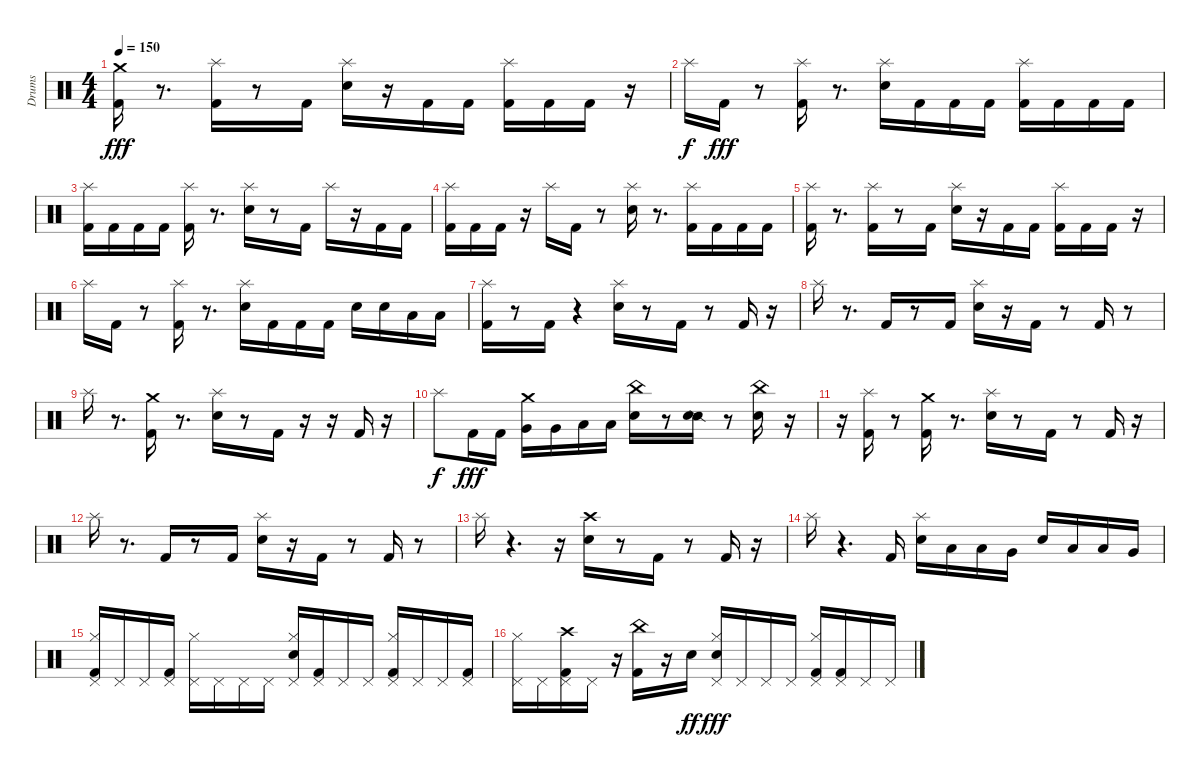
\track ("Drums" "Drums") {instrument percussion}
\staff {score}
\articulation defaults
\ts (4 4)
\tempo 150
\clef neutral
\ks c
("Kick (hit) 2" "Crash medium (hit)").16{dy fff} r.8{d} ("Kick (hit) 2" "Splash (hit)").16 r.8 "Kick (hit) 2".16 ("Snare (hit) 2" "Splash (hit)").16 r.16 "Kick (hit) 2".16 "Kick (hit) 2".16 ("Kick (hit) 2" "Splash (hit)").16 "Kick (hit) 2".16 "Kick (hit) 2".16 r.16 |
"Splash (hit)".16{dy f} "Kick (hit) 2".16{dy fff} r.8 ("Kick (hit) 2" "Splash (hit)").16 r.8{d} ("Snare (hit) 2" "Splash (hit)").16 "Kick (hit) 2".16 "Kick (hit) 2".16 "Kick (hit) 2".16 ("Kick (hit) 2" "Splash (hit)").16 "Kick (hit) 2".16 "Kick (hit) 2".16 "Kick (hit) 2".16 |
("Kick (hit) 2" "Splash (hit)").16 "Kick (hit) 2".16 "Kick (hit) 2".16 "Kick (hit) 2".16 ("Kick (hit) 2" "Splash (hit)").16 r.8{d} ("Snare (hit) 2" "Splash (hit)").16 r.8 "Kick (hit) 2".16 "Splash (hit)".16 r.16 "Kick (hit) 2".16 "Kick (hit) 2".16 |
("Kick (hit) 2" "Splash (hit)").16 "Kick (hit) 2".16 "Kick (hit) 2".16 r.16 "Splash (hit)".16 "Kick (hit) 2".16 r.8 ("Snare (hit) 2" "Splash (hit)").16 r.8{d} ("Kick (hit) 2" "Splash (hit)").16 "Kick (hit) 2".16 "Kick (hit) 2".16 "Kick (hit) 2".16 |
("Kick (hit) 2" "Splash (hit)").16 r.8{d} ("Kick (hit) 2" "Splash (hit)").16 r.8 "Kick (hit) 2".16 ("Snare (hit) 2" "Splash (hit)").16 r.16 "Kick (hit) 2".16 "Kick (hit) 2".16 ("Kick (hit) 2" "Splash (hit)").16 "Kick (hit) 2".16 "Kick (hit) 2".16 r.16 |
"Splash (hit)".16 "Kick (hit) 2".16 r.8 ("Kick (hit) 2" "Splash (hit)").16 r.8{d} ("Snare (hit) 2" "Splash (hit)").16 "Kick (hit) 2".16 "Kick (hit) 2".16 "Kick (hit) 2".16 "Snare (hit) 2".16 "Snare (hit) 2".16 "Low Tom (hit)".16 "Low Tom (hit)".16 |
("Splash (hit)" "Kick (hit) 2").16 r.8 "Kick (hit) 2".16 r.4 ("Splash (hit)" "Snare (hit) 2").16 r.8 "Kick (hit) 2".16 r.8 "Kick (hit) 2".16 r.16 |
"Splash (hit)".16 r.8{d} "Kick (hit) 2".16 r.8 "Kick (hit) 2".16 ("Splash (hit)" "Snare (hit) 2").16 r.16 "Kick (hit) 2".16 r.8 "Kick (hit) 2".16 r.8 |
"Splash (hit)".16 r.8{d} ("Kick (hit) 2" "Crash medium (hit)").16 r.8{d} ("Splash (hit)" "Snare (hit) 2").16 r.8 "Kick (hit) 2".16 r.16 r.16 "Kick (hit) 2".16 r.16 |
"Splash (hit)".8{dy f} "Kick (hit) 2".16{dy fff} "Kick (hit) 2".16 ("Crash medium (hit)" "Very Low Tom (hit)").16 "Very Low Tom (hit)".16 "Low Floor Tom (hit)".16 "Low Floor Tom (hit)".16 ("Snare (hit) 2" "China (hit)").16 r.8 ("Snare (side stick) 2" "Snare (hit) 2").16 r.8 ("Snare (hit) 2" "China (hit)").16 r.16 |
r.16 ("Kick (hit) 2" "Splash (hit)").16 r.8 ("Crash medium (hit)" "Kick (hit) 2").16 r.8{d} ("Splash (hit)" "Snare (hit) 2").16 r.8 "Kick (hit) 2".16 r.8 "Kick (hit) 2".16 r.16 |
"Splash (hit)".16 r.8{d} "Kick (hit) 2".16 r.8 "Kick (hit) 2".16 ("Splash (hit)" "Snare (hit) 2").16 r.16 "Kick (hit) 2".16 r.8 "Kick (hit) 2".16 r.8 |
"Splash (hit)".16 r.4{d} r.16 ("Crash high (hit)" "Snare (hit) 2").16 r.8 "Kick (hit) 2".16 r.8 "Kick (hit) 2".16 r.16 |
"Splash (hit)".16 r.4{d} "Kick (hit) 2".16 ("Splash (hit)" "Snare (hit) 2").16 "Low Tom (hit)".16 "Low Tom (hit)".16 "Very Low Tom (hit)".16 "Snare (hit) 2".16 "Low Tom (hit)".16 "Low Tom (hit)".16 "Very Low Tom (hit)".16 |
("Kick (hit) 2" "Hi-Hat (closed)" "Pedal Hi-Hat (hit)").16 "Pedal Hi-Hat (hit)".16 "Pedal Hi-Hat (hit)".16 ("Kick (hit) 2" "Pedal Hi-Hat (hit)").16 ("Hi-Hat (closed)" "Pedal Hi-Hat (hit)").16 "Pedal Hi-Hat (hit)".16 "Pedal Hi-Hat (hit)".16 "Pedal Hi-Hat (hit)".16 ("Snare (hit) 2" "Hi-Hat (closed)" "Pedal Hi-Hat (hit)").16 ("Kick (hit) 2" "Pedal Hi-Hat (hit)").16 "Pedal Hi-Hat (hit)".16 "Pedal Hi-Hat (hit)".16 ("Kick (hit) 2" "Hi-Hat (closed)" "Pedal Hi-Hat (hit)").16 "Pedal Hi-Hat (hit)".16 "Pedal Hi-Hat (hit)".16 ("Kick (hit) 2" "Pedal Hi-Hat (hit)").16 |
("Hi-Hat (closed)" "Pedal Hi-Hat (hit)").16 "Pedal Hi-Hat (hit)".16 ("Kick (hit) 2" "Pedal Hi-Hat (hit)" "Crash high (hit)").16 "Pedal Hi-Hat (hit)".16 r.16 ("Kick (hit) 2" "China (hit)").16 r.16 "Snare (hit) 2".16{dy ff} ("Snare (hit) 2" "Hi-Hat (closed)" "Pedal Hi-Hat (hit)").16{dy fff} "Pedal Hi-Hat (hit)".16 "Pedal Hi-Hat (hit)".16 "Pedal Hi-Hat (hit)".16 ("Kick (hit) 2" "Hi-Hat (closed)" "Pedal Hi-Hat (hit)").16 ("Kick (hit) 2" "Pedal Hi-Hat (hit)").16 "Pedal Hi-Hat (hit)".16 "Pedal Hi-Hat (hit)".16
